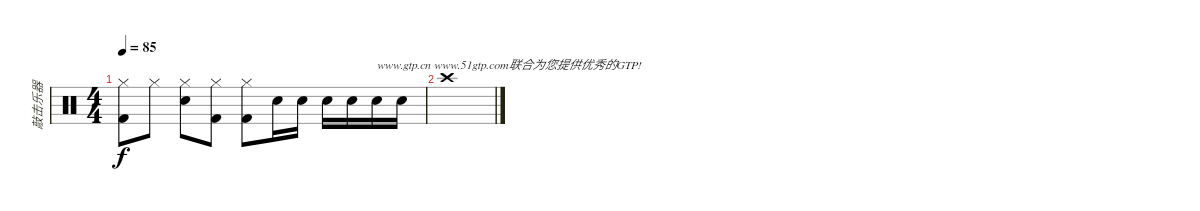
\track ("敲击乐器" "敲击乐器") {instrument percussion}
\staff {score}
\articulation defaults
\ts (4 4)
\tempo 85
\clef neutral
\ks c
("Hi-Hat (closed)" "Kick (hit) 2").8{dy f} "Hi-Hat (closed)".8 ("Hi-Hat (closed)" "Electric Snare (hit)").8 ("Hi-Hat (closed)" "Kick (hit) 2").8 ("Hi-Hat (closed)" "Kick (hit) 2").8 "Electric Snare (hit)".16 "Electric Snare (hit)".16 "Electric Snare (hit)".16 "Electric Snare (hit)".16 "Electric Snare (hit)".16{txt "www.gtp.cn www.51gtp.com联合为您提供优秀的GTP!"} "Electric Snare (hit)".16 |
"Crash high (hit)".1
